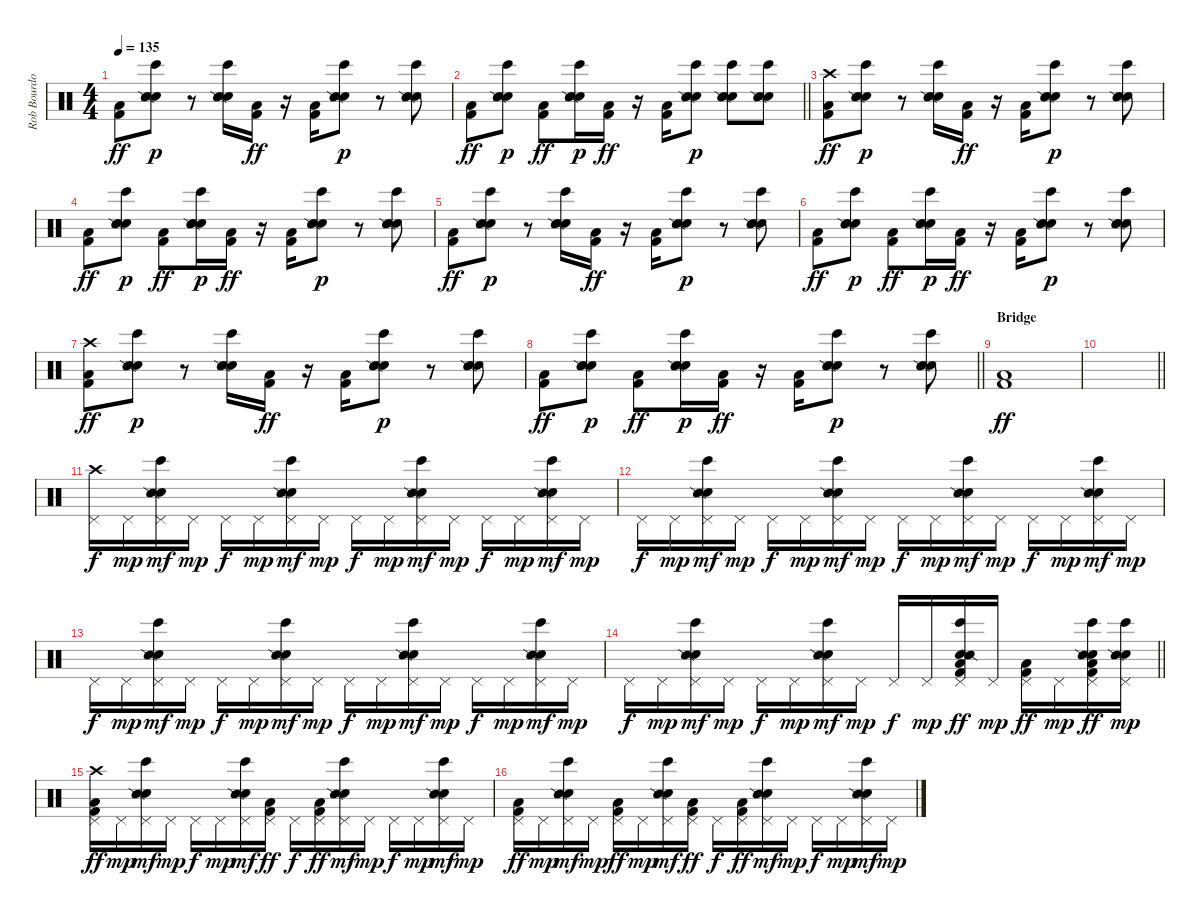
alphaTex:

\track ("Rob Bourdon - Beats & Drums" "Rob Bourdo") {instrument percussion}
\staff {score}
\articulation defaults
\ts (4 4)
\tempo 135
\clef neutral
\ks c
("Low Floor Tom (hit)" "Kick (hit) 2").8{dy ff} ("Bongo High (hit)" "Electric Snare (hit)" "Snare (side stick) 2" "Hand Clap (hit)").8{dy p} r.8 ("Bongo High (hit)" "Electric Snare (hit)" "Snare (side stick) 2" "Hand Clap (hit)").16 ("Low Floor Tom (hit)" "Kick (hit) 2").16{dy ff} r.16 ("Low Floor Tom (hit)" "Kick (hit) 2").16 ("Bongo High (hit)" "Electric Snare (hit)" "Snare (side stick) 2" "Hand Clap (hit)").8{dy p} r.8 ("Bongo High (hit)" "Electric Snare (hit)" "Snare (side stick) 2" "Hand Clap (hit)").8 |
\barLineRight lightlight
("Low Floor Tom (hit)" "Kick (hit) 2").8{dy ff} ("Bongo High (hit)" "Electric Snare (hit)" "Snare (side stick) 2" "Hand Clap (hit)").8{dy p} ("Low Floor Tom (hit)" "Kick (hit) 2").8{dy ff} ("Bongo High (hit)" "Electric Snare (hit)" "Snare (side stick) 2" "Hand Clap (hit)").16{dy p} ("Low Floor Tom (hit)" "Kick (hit) 2").16{dy ff} r.16 ("Low Floor Tom (hit)" "Kick (hit) 2").16 ("Bongo High (hit)" "Electric Snare (hit)" "Snare (side stick) 2" "Hand Clap (hit)").8{dy p} ("Bongo High (hit)" "Electric Snare (hit)" "Snare (side stick) 2" "Hand Clap (hit)").8 ("Bongo High (hit)" "Electric Snare (hit)" "Snare (side stick) 2" "Hand Clap (hit)").8 |
\section ("" "")
("Low Floor Tom (hit)" "Crash high (hit)" "Kick (hit) 2").8{dy ff} ("Bongo High (hit)" "Electric Snare (hit)" "Snare (side stick) 2" "Hand Clap (hit)").8{dy p} r.8 ("Bongo High (hit)" "Electric Snare (hit)" "Snare (side stick) 2" "Hand Clap (hit)").16 ("Low Floor Tom (hit)" "Kick (hit) 2").16{dy ff} r.16 ("Low Floor Tom (hit)" "Kick (hit) 2").16 ("Bongo High (hit)" "Electric Snare (hit)" "Snare (side stick) 2" "Hand Clap (hit)").8{dy p} r.8 ("Bongo High (hit)" "Electric Snare (hit)" "Snare (side stick) 2" "Hand Clap (hit)").8 |
("Low Floor Tom (hit)" "Kick (hit) 2").8{dy ff} ("Bongo High (hit)" "Electric Snare (hit)" "Snare (side stick) 2" "Hand Clap (hit)").8{dy p} ("Low Floor Tom (hit)" "Kick (hit) 2").8{dy ff} ("Bongo High (hit)" "Electric Snare (hit)" "Snare (side stick) 2" "Hand Clap (hit)").16{dy p} ("Low Floor Tom (hit)" "Kick (hit) 2").16{dy ff} r.16 ("Low Floor Tom (hit)" "Kick (hit) 2").16 ("Bongo High (hit)" "Electric Snare (hit)" "Snare (side stick) 2" "Hand Clap (hit)").8{dy p} r.8 ("Bongo High (hit)" "Electric Snare (hit)" "Snare (side stick) 2" "Hand Clap (hit)").8 |
("Low Floor Tom (hit)" "Kick (hit) 2").8{dy ff} ("Bongo High (hit)" "Electric Snare (hit)" "Snare (side stick) 2" "Hand Clap (hit)").8{dy p} r.8 ("Bongo High (hit)" "Electric Snare (hit)" "Snare (side stick) 2" "Hand Clap (hit)").16 ("Low Floor Tom (hit)" "Kick (hit) 2").16{dy ff} r.16 ("Low Floor Tom (hit)" "Kick (hit) 2").16 ("Bongo High (hit)" "Electric Snare (hit)" "Snare (side stick) 2" "Hand Clap (hit)").8{dy p} r.8 ("Bongo High (hit)" "Electric Snare (hit)" "Snare (side stick) 2" "Hand Clap (hit)").8 |
("Low Floor Tom (hit)" "Kick (hit) 2").8{dy ff} ("Bongo High (hit)" "Electric Snare (hit)" "Snare (side stick) 2" "Hand Clap (hit)").8{dy p} ("Low Floor Tom (hit)" "Kick (hit) 2").8{dy ff} ("Bongo High (hit)" "Electric Snare (hit)" "Snare (side stick) 2" "Hand Clap (hit)").16{dy p} ("Low Floor Tom (hit)" "Kick (hit) 2").16{dy ff} r.16 ("Low Floor Tom (hit)" "Kick (hit) 2").16 ("Bongo High (hit)" "Electric Snare (hit)" "Snare (side stick) 2" "Hand Clap (hit)").8{dy p} r.8 ("Bongo High (hit)" "Electric Snare (hit)" "Snare (side stick) 2" "Hand Clap (hit)").8 |
("Low Floor Tom (hit)" "Crash high (hit)" "Kick (hit) 2").8{dy ff} ("Bongo High (hit)" "Electric Snare (hit)" "Snare (side stick) 2" "Hand Clap (hit)").8{dy p} r.8 ("Bongo High (hit)" "Electric Snare (hit)" "Snare (side stick) 2" "Hand Clap (hit)").16 ("Low Floor Tom (hit)" "Kick (hit) 2").16{dy ff} r.16 ("Low Floor Tom (hit)" "Kick (hit) 2").16 ("Bongo High (hit)" "Electric Snare (hit)" "Snare (side stick) 2" "Hand Clap (hit)").8{dy p} r.8 ("Bongo High (hit)" "Electric Snare (hit)" "Snare (side stick) 2" "Hand Clap (hit)").8 |
\barLineRight lightlight
("Low Floor Tom (hit)" "Kick (hit) 2").8{dy ff} ("Bongo High (hit)" "Electric Snare (hit)" "Snare (side stick) 2" "Hand Clap (hit)").8{dy p} ("Low Floor Tom (hit)" "Kick (hit) 2").8{dy ff} ("Bongo High (hit)" "Electric Snare (hit)" "Snare (side stick) 2" "Hand Clap (hit)").16{dy p} ("Low Floor Tom (hit)" "Kick (hit) 2").16{dy ff} r.16 ("Low Floor Tom (hit)" "Kick (hit) 2").16 ("Bongo High (hit)" "Electric Snare (hit)" "Snare (side stick) 2" "Hand Clap (hit)").8{dy p} r.8 ("Bongo High (hit)" "Electric Snare (hit)" "Snare (side stick) 2" "Hand Clap (hit)").8 |
\section ("" "Bridge")
("Low Floor Tom (hit)" "Kick (hit) 2").1{dy ff} |
\barLineRight lightlight
|
("Crash high (hit)" "Pedal Hi-Hat (hit)").16{dy f} "Pedal Hi-Hat (hit)".16{dy mp} ("Bongo High (hit)" "Electric Snare (hit)" "Snare (side stick) 2" "Pedal Hi-Hat (hit)").16{dy mf} "Pedal Hi-Hat (hit)".16{dy mp} "Pedal Hi-Hat (hit)".16{dy f} "Pedal Hi-Hat (hit)".16{dy mp} ("Bongo High (hit)" "Electric Snare (hit)" "Snare (side stick) 2" "Pedal Hi-Hat (hit)").16{dy mf} "Pedal Hi-Hat (hit)".16{dy mp} "Pedal Hi-Hat (hit)".16{dy f} "Pedal Hi-Hat (hit)".16{dy mp} ("Bongo High (hit)" "Electric Snare (hit)" "Snare (side stick) 2" "Pedal Hi-Hat (hit)").16{dy mf} "Pedal Hi-Hat (hit)".16{dy mp} "Pedal Hi-Hat (hit)".16{dy f} "Pedal Hi-Hat (hit)".16{dy mp} ("Bongo High (hit)" "Electric Snare (hit)" "Snare (side stick) 2" "Pedal Hi-Hat (hit)").16{dy mf} "Pedal Hi-Hat (hit)".16{dy mp} |
"Pedal Hi-Hat (hit)".16{dy f} "Pedal Hi-Hat (hit)".16{dy mp} ("Bongo High (hit)" "Electric Snare (hit)" "Snare (side stick) 2" "Pedal Hi-Hat (hit)").16{dy mf} "Pedal Hi-Hat (hit)".16{dy mp} "Pedal Hi-Hat (hit)".16{dy f} "Pedal Hi-Hat (hit)".16{dy mp} ("Bongo High (hit)" "Electric Snare (hit)" "Snare (side stick) 2" "Pedal Hi-Hat (hit)").16{dy mf} "Pedal Hi-Hat (hit)".16{dy mp} "Pedal Hi-Hat (hit)".16{dy f} "Pedal Hi-Hat (hit)".16{dy mp} ("Bongo High (hit)" "Electric Snare (hit)" "Snare (side stick) 2" "Pedal Hi-Hat (hit)").16{dy mf} "Pedal Hi-Hat (hit)".16{dy mp} "Pedal Hi-Hat (hit)".16{dy f} "Pedal Hi-Hat (hit)".16{dy mp} ("Bongo High (hit)" "Electric Snare (hit)" "Snare (side stick) 2" "Pedal Hi-Hat (hit)").16{dy mf} "Pedal Hi-Hat (hit)".16{dy mp} |
"Pedal Hi-Hat (hit)".16{dy f} "Pedal Hi-Hat (hit)".16{dy mp} ("Bongo High (hit)" "Electric Snare (hit)" "Snare (side stick) 2" "Pedal Hi-Hat (hit)").16{dy mf} "Pedal Hi-Hat (hit)".16{dy mp} "Pedal Hi-Hat (hit)".16{dy f} "Pedal Hi-Hat (hit)".16{dy mp} ("Bongo High (hit)" "Electric Snare (hit)" "Snare (side stick) 2" "Pedal Hi-Hat (hit)").16{dy mf} "Pedal Hi-Hat (hit)".16{dy mp} "Pedal Hi-Hat (hit)".16{dy f} "Pedal Hi-Hat (hit)".16{dy mp} ("Bongo High (hit)" "Electric Snare (hit)" "Snare (side stick) 2" "Pedal Hi-Hat (hit)").16{dy mf} "Pedal Hi-Hat (hit)".16{dy mp} "Pedal Hi-Hat (hit)".16{dy f} "Pedal Hi-Hat (hit)".16{dy mp} ("Bongo High (hit)" "Electric Snare (hit)" "Snare (side stick) 2" "Pedal Hi-Hat (hit)").16{dy mf} "Pedal Hi-Hat (hit)".16{dy mp} |
\barLineRight lightlight "Pedal Hi-Hat (hit)".16{dy f} "Pedal Hi-Hat (hit)".16{dy mp}
("Bongo High (hit)" "Electric Snare (hit)" "Snare (side stick) 2" "Pedal Hi-Hat (hit)").16{dy mf} "Pedal Hi-Hat (hit)".16{dy mp} "Pedal Hi-Hat (hit)".16{dy f} "Pedal Hi-Hat (hit)".16{dy mp} ("Bongo High (hit)" "Electric Snare (hit)" "Snare (side stick) 2" "Pedal Hi-Hat (hit)").16{dy mf} "Pedal Hi-Hat (hit)".16{dy mp} "Pedal Hi-Hat (hit)".16{dy f} "Pedal Hi-Hat (hit)".16{dy mp} ("Low Floor Tom (hit)" "Bongo High (hit)" "Electric Snare (hit)" "Snare (side stick) 2" "Pedal Hi-Hat (hit)" "Kick (hit) 2").16{dy ff} "Pedal Hi-Hat (hit)".16{dy mp} ("Low Floor Tom (hit)" "Pedal Hi-Hat (hit)" "Kick (hit) 2").16{dy ff} "Pedal Hi-Hat (hit)".16{dy mp} ("Low Floor Tom (hit)" "Bongo High (hit)" "Electric Snare (hit)" "Snare (side stick) 2" "Pedal Hi-Hat (hit)" "Kick (hit) 2").16{dy ff} ("Bongo High (hit)" "Electric Snare (hit)" "Snare (side stick) 2" "Pedal Hi-Hat (hit)").16{dy mp} |
("Crash high (hit)" "Low Floor Tom (hit)" "Pedal Hi-Hat (hit)" "Kick (hit) 2").16{dy ff} "Pedal Hi-Hat (hit)".16{dy mp} ("Bongo High (hit)" "Electric Snare (hit)" "Snare (side stick) 2" "Pedal Hi-Hat (hit)").16{dy mf} "Pedal Hi-Hat (hit)".16{dy mp} "Pedal Hi-Hat (hit)".16{dy f} "Pedal Hi-Hat (hit)".16{dy mp} ("Bongo High (hit)" "Electric Snare (hit)" "Snare (side stick) 2" "Pedal Hi-Hat (hit)").16{dy mf} ("Low Floor Tom (hit)" "Pedal Hi-Hat (hit)" "Kick (hit) 2").16{dy ff} "Pedal Hi-Hat (hit)".16{dy f} ("Low Floor Tom (hit)" "Pedal Hi-Hat (hit)" "Kick (hit) 2").16{dy ff} ("Bongo High (hit)" "Electric Snare (hit)" "Snare (side stick) 2" "Pedal Hi-Hat (hit)").16{dy mf} "Pedal Hi-Hat (hit)".16{dy mp} "Pedal Hi-Hat (hit)".16{dy f} "Pedal Hi-Hat (hit)".16{dy mp} ("Bongo High (hit)" "Electric Snare (hit)" "Snare (side stick) 2" "Pedal Hi-Hat (hit)").16{dy mf} "Pedal Hi-Hat (hit)".16{dy mp} |
("Low Floor Tom (hit)" "Pedal Hi-Hat (hit)" "Kick (hit) 2").16{dy ff} "Pedal Hi-Hat (hit)".16{dy mp} ("Bongo High (hit)" "Electric Snare (hit)" "Snare (side stick) 2" "Pedal Hi-Hat (hit)").16{dy mf} "Pedal Hi-Hat (hit)".16{dy mp} ("Low Floor Tom (hit)" "Pedal Hi-Hat (hit)" "Kick (hit) 2").16{dy ff} "Pedal Hi-Hat (hit)".16{dy mp} ("Bongo High (hit)" "Electric Snare (hit)" "Snare (side stick) 2" "Pedal Hi-Hat (hit)").16{dy mf} ("Low Floor Tom (hit)" "Pedal Hi-Hat (hit)" "Kick (hit) 2").16{dy ff} "Pedal Hi-Hat (hit)".16{dy f} ("Low Floor Tom (hit)" "Pedal Hi-Hat (hit)" "Kick (hit) 2").16{dy ff} ("Bongo High (hit)" "Electric Snare (hit)" "Snare (side stick) 2" "Pedal Hi-Hat (hit)").16{dy mf} "Pedal Hi-Hat (hit)".16{dy mp} "Pedal Hi-Hat (hit)".16{dy f} "Pedal Hi-Hat (hit)".16{dy mp} ("Bongo High (hit)" "Electric Snare (hit)" "Snare (side stick) 2" "Pedal Hi-Hat (hit)").16{dy mf} "Pedal Hi-Hat (hit)".16{dy mp}
